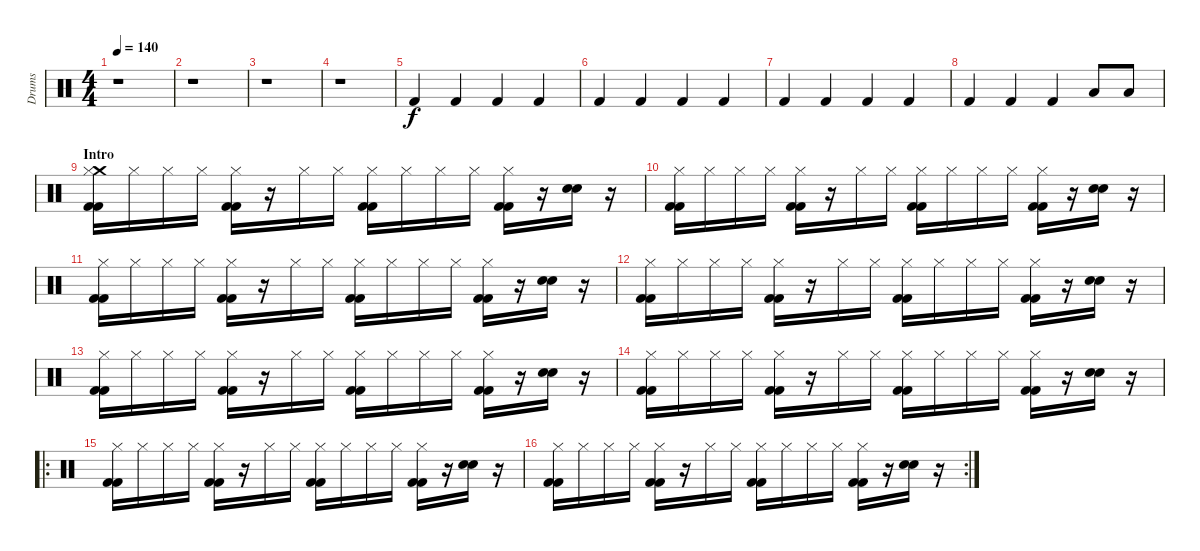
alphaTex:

\track ("Drums" "Drums") {instrument percussion}
\staff {score}
\articulation defaults
\ts (4 4)
\tempo 140
\clef neutral
\ks c
r.1{dy f} |
r.1 |
r.1 |
r.1 |
"Kick (hit) 2".4 "Kick (hit) 2".4 "Kick (hit) 2".4 "Kick (hit) 2".4 |
"Kick (hit) 2".4 "Kick (hit) 2".4 "Kick (hit) 2".4 "Kick (hit) 2".4 |
"Kick (hit) 2".4 "Kick (hit) 2".4 "Kick (hit) 2".4 "Kick (hit) 2".4 |
"Kick (hit) 2".4 "Kick (hit) 2".4 "Kick (hit) 2".4 "Low Floor Tom (hit)".8 "Low Floor Tom (hit)".8 |
\section ("" "Intro")
("Crash medium (hit)" "Hi-Hat (closed)" "Kick (hit) 2" "Kick (hit) 2").16 "Hi-Hat (closed)".16 "Hi-Hat (closed)".16 "Hi-Hat (closed)".16 ("Hi-Hat (closed)" "Kick (hit) 2" "Kick (hit) 2").16 r.16 "Hi-Hat (closed)".16 "Hi-Hat (closed)".16 ("Hi-Hat (closed)" "Kick (hit) 2" "Kick (hit) 2").16 "Hi-Hat (closed)".16 "Hi-Hat (closed)".16 "Hi-Hat (closed)".16 ("Hi-Hat (closed)" "Kick (hit) 2" "Kick (hit) 2").16 r.16 ("Snare (hit) 2" "Snare (hit) 2").16 r.16 |
("Hi-Hat (closed)" "Kick (hit) 2" "Kick (hit) 2").16 "Hi-Hat (closed)".16 "Hi-Hat (closed)".16 "Hi-Hat (closed)".16 ("Hi-Hat (closed)" "Kick (hit) 2" "Kick (hit) 2").16 r.16 "Hi-Hat (closed)".16 "Hi-Hat (closed)".16 ("Hi-Hat (closed)" "Kick (hit) 2" "Kick (hit) 2").16 "Hi-Hat (closed)".16 "Hi-Hat (closed)".16 "Hi-Hat (closed)".16 ("Hi-Hat (closed)" "Kick (hit) 2" "Kick (hit) 2").16 r.16 ("Snare (hit) 2" "Snare (hit) 2").16 r.16 |
("Hi-Hat (closed)" "Kick (hit) 2" "Kick (hit) 2").16 "Hi-Hat (closed)".16 "Hi-Hat (closed)".16 "Hi-Hat (closed)".16 ("Hi-Hat (closed)" "Kick (hit) 2" "Kick (hit) 2").16 r.16 "Hi-Hat (closed)".16 "Hi-Hat (closed)".16 ("Hi-Hat (closed)" "Kick (hit) 2" "Kick (hit) 2").16 "Hi-Hat (closed)".16 "Hi-Hat (closed)".16 "Hi-Hat (closed)".16 ("Hi-Hat (closed)" "Kick (hit) 2" "Kick (hit) 2").16 r.16 ("Snare (hit) 2" "Snare (hit) 2").16 r.16 |
("Hi-Hat (closed)" "Kick (hit) 2" "Kick (hit) 2").16 "Hi-Hat (closed)".16 "Hi-Hat (closed)".16 "Hi-Hat (closed)".16 ("Hi-Hat (closed)" "Kick (hit) 2" "Kick (hit) 2").16 r.16 "Hi-Hat (closed)".16 "Hi-Hat (closed)".16 ("Hi-Hat (closed)" "Kick (hit) 2" "Kick (hit) 2").16 "Hi-Hat (closed)".16 "Hi-Hat (closed)".16 "Hi-Hat (closed)".16 ("Hi-Hat (closed)" "Kick (hit) 2" "Kick (hit) 2").16 r.16 ("Snare (hit) 2" "Snare (hit) 2").16 r.16 |
("Hi-Hat (closed)" "Kick (hit) 2" "Kick (hit) 2").16 "Hi-Hat (closed)".16 "Hi-Hat (closed)".16 "Hi-Hat (closed)".16 ("Hi-Hat (closed)" "Kick (hit) 2" "Kick (hit) 2").16 r.16 "Hi-Hat (closed)".16 "Hi-Hat (closed)".16 ("Hi-Hat (closed)" "Kick (hit) 2" "Kick (hit) 2").16 "Hi-Hat (closed)".16 "Hi-Hat (closed)".16 "Hi-Hat (closed)".16 ("Hi-Hat (closed)" "Kick (hit) 2" "Kick (hit) 2").16 r.16 ("Snare (hit) 2" "Snare (hit) 2").16 r.16 |
("Hi-Hat (closed)" "Kick (hit) 2" "Kick (hit) 2").16 "Hi-Hat (closed)".16 "Hi-Hat (closed)".16 "Hi-Hat (closed)".16 ("Hi-Hat (closed)" "Kick (hit) 2" "Kick (hit) 2").16 r.16 "Hi-Hat (closed)".16 "Hi-Hat (closed)".16 ("Hi-Hat (closed)" "Kick (hit) 2" "Kick (hit) 2").16 "Hi-Hat (closed)".16 "Hi-Hat (closed)".16 "Hi-Hat (closed)".16 ("Hi-Hat (closed)" "Kick (hit) 2" "Kick (hit) 2").16 r.16 ("Snare (hit) 2" "Snare (hit) 2").16 r.16 |
\ro
("Hi-Hat (closed)" "Kick (hit) 2" "Kick (hit) 2").16 "Hi-Hat (closed)".16 "Hi-Hat (closed)".16 "Hi-Hat (closed)".16 ("Hi-Hat (closed)" "Kick (hit) 2" "Kick (hit) 2").16 r.16 "Hi-Hat (closed)".16 "Hi-Hat (closed)".16 ("Hi-Hat (closed)" "Kick (hit) 2" "Kick (hit) 2").16 "Hi-Hat (closed)".16 "Hi-Hat (closed)".16 "Hi-Hat (closed)".16 ("Hi-Hat (closed)" "Kick (hit) 2" "Kick (hit) 2").16 r.16 ("Snare (hit) 2" "Snare (hit) 2").16 r.16 |
\rc 2
("Hi-Hat (closed)" "Kick (hit) 2" "Kick (hit) 2").16 "Hi-Hat (closed)".16 "Hi-Hat (closed)".16 "Hi-Hat (closed)".16 ("Hi-Hat (closed)" "Kick (hit) 2" "Kick (hit) 2").16 r.16 "Hi-Hat (closed)".16 "Hi-Hat (closed)".16 ("Hi-Hat (closed)" "Kick (hit) 2" "Kick (hit) 2").16 "Hi-Hat (closed)".16 "Hi-Hat (closed)".16 "Hi-Hat (closed)".16 ("Hi-Hat (closed)" "Kick (hit) 2" "Kick (hit) 2").16 r.16 ("Snare (hit) 2" "Snare (hit) 2").16 r.16
